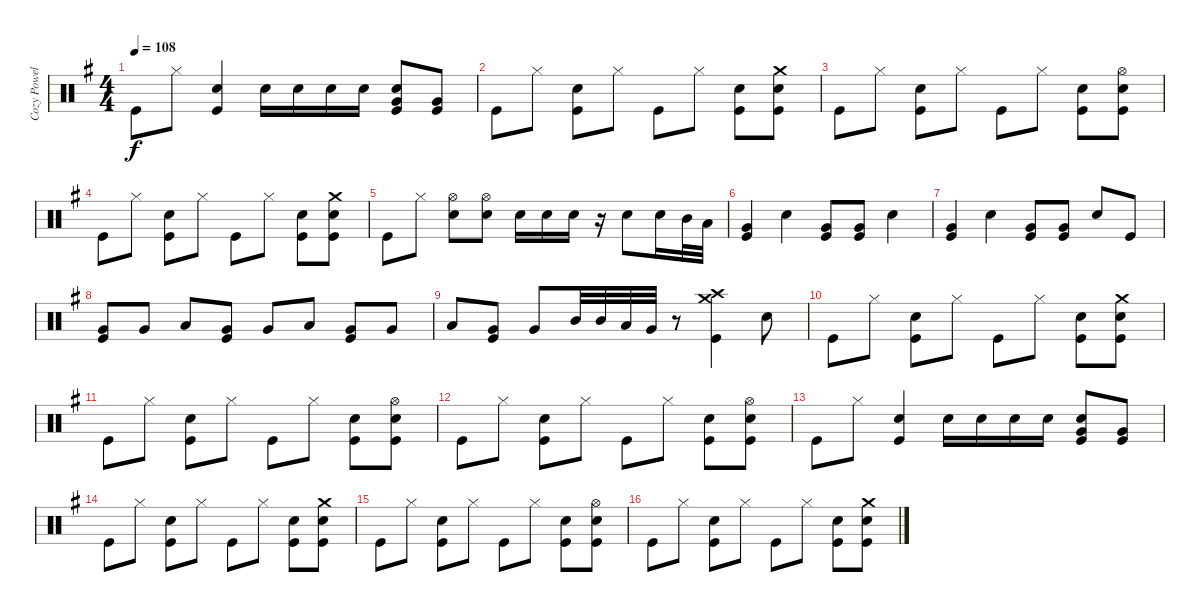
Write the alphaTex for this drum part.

\track ("Cozy Powell Drums" "Cozy Powel") {instrument percussion}
\staff {score}
\articulation defaults
\ts (4 4)
\tempo 108
\clef neutral
\ks g "Kick (hit)".8{dy f} "Hi-Hat (closed)".8
("Snare (hit) 2" "Kick (hit)").4 "Snare (hit) 2".16 "Snare (hit) 2".16 "Snare (hit) 2".16 "Snare (hit) 2".16 ("Snare (hit) 2" "Very Low Tom (hit)" "Kick (hit)").8 ("Very Low Tom (hit)" "Kick (hit)").8 |
"Kick (hit)".8 "Hi-Hat (closed)".8 ("Snare (hit) 2" "Kick (hit)").8 "Hi-Hat (closed)".8 "Kick (hit)".8 "Hi-Hat (closed)".8 ("Snare (hit) 2" "Kick (hit)").8 ("Crash medium (hit)" "Snare (hit) 2" "Kick (hit)").8 |
"Kick (hit)".8 "Hi-Hat (closed)".8 ("Snare (hit) 2" "Kick (hit)").8 "Hi-Hat (closed)".8 "Kick (hit)".8 "Hi-Hat (closed)".8 ("Snare (hit) 2" "Kick (hit)").8 ("Hi-Hat (open)" "Snare (hit) 2" "Kick (hit)").8 |
"Kick (hit)".8 "Hi-Hat (closed)".8 ("Snare (hit) 2" "Kick (hit)").8 "Hi-Hat (closed)".8 "Kick (hit)".8 "Hi-Hat (closed)".8 ("Snare (hit) 2" "Kick (hit)").8 ("Crash medium (hit)" "Snare (hit) 2" "Kick (hit)").8 |
"Kick (hit)".8 "Hi-Hat (closed)".8 ("Hi-Hat (open)" "Snare (hit) 2").8 ("Hi-Hat (open)" "Snare (hit) 2").8 "Snare (hit) 2".16 "Snare (hit) 2".16 "Snare (hit) 2".16 r.16 "Snare (hit) 2".8 "Snare (hit) 2".16 "Mid Tom (hit)".32 "Low Tom (hit)".32 |
("Very Low Tom (hit)" "Kick (hit)").4 "Snare (hit) 2".4 ("Very Low Tom (hit)" "Kick (hit)").8 ("Very Low Tom (hit)" "Kick (hit)").8 "Snare (hit) 2".4 |
("Very Low Tom (hit)" "Kick (hit)").4 "Snare (hit) 2".4 ("Very Low Tom (hit)" "Kick (hit)").8 ("Very Low Tom (hit)" "Kick (hit)").8 "Snare (hit) 2".8 "Kick (hit)".8 |
("Very Low Tom (hit)" "Kick (hit)").8 "Very Low Tom (hit)".8 "Low Floor Tom (hit)".8 ("Very Low Tom (hit)" "Kick (hit)").8 "Very Low Tom (hit)".8 "Low Floor Tom (hit)".8 ("Very Low Tom (hit)" "Kick (hit)").8 "Very Low Tom (hit)".8 |
"Low Floor Tom (hit)".8 ("Very Low Tom (hit)" "Kick (hit)").8 "Very Low Tom (hit)".8 "Mid Tom (hit)".32 "Mid Tom (hit)".32 "Low Tom (hit)".32 "Very Low Tom (hit)".32 r.8 ("Crash high (hit)" "Crash medium (hit)" "Kick (hit)").4 "Snare (hit) 2".8 |
"Kick (hit)".8 "Hi-Hat (closed)".8 ("Snare (hit) 2" "Kick (hit)").8 "Hi-Hat (closed)".8 "Kick (hit)".8 "Hi-Hat (closed)".8 ("Snare (hit) 2" "Kick (hit)").8 ("Crash medium (hit)" "Snare (hit) 2" "Kick (hit)").8 |
"Kick (hit)".8 "Hi-Hat (closed)".8 ("Snare (hit) 2" "Kick (hit)").8 "Hi-Hat (closed)".8 "Kick (hit)".8 "Hi-Hat (closed)".8 ("Snare (hit) 2" "Kick (hit)").8 ("Hi-Hat (open)" "Snare (hit) 2" "Kick (hit)").8 |
"Kick (hit)".8 "Hi-Hat (closed)".8 ("Snare (hit) 2" "Kick (hit)").8 "Hi-Hat (closed)".8 "Kick (hit)".8 "Hi-Hat (closed)".8 ("Snare (hit) 2" "Kick (hit)").8 ("Hi-Hat (open)" "Snare (hit) 2" "Kick (hit)").8 |
"Kick (hit)".8 "Hi-Hat (closed)".8 ("Snare (hit) 2" "Kick (hit)").4 "Snare (hit) 2".16 "Snare (hit) 2".16 "Snare (hit) 2".16 "Snare (hit) 2".16 ("Snare (hit) 2" "Very Low Tom (hit)" "Kick (hit)").8 ("Very Low Tom (hit)" "Kick (hit)").8 |
"Kick (hit)".8 "Hi-Hat (closed)".8 ("Snare (hit) 2" "Kick (hit)").8 "Hi-Hat (closed)".8 "Kick (hit)".8 "Hi-Hat (closed)".8 ("Snare (hit) 2" "Kick (hit)").8 ("Crash medium (hit)" "Snare (hit) 2" "Kick (hit)").8 |
"Kick (hit)".8 "Hi-Hat (closed)".8 ("Snare (hit) 2" "Kick (hit)").8 "Hi-Hat (closed)".8 "Kick (hit)".8 "Hi-Hat (closed)".8 ("Snare (hit) 2" "Kick (hit)").8 ("Hi-Hat (open)" "Snare (hit) 2" "Kick (hit)").8 |
"Kick (hit)".8 "Hi-Hat (closed)".8 ("Snare (hit) 2" "Kick (hit)").8 "Hi-Hat (closed)".8 "Kick (hit)".8 "Hi-Hat (closed)".8 ("Snare (hit) 2" "Kick (hit)").8 ("Crash medium (hit)" "Snare (hit) 2" "Kick (hit)").8
